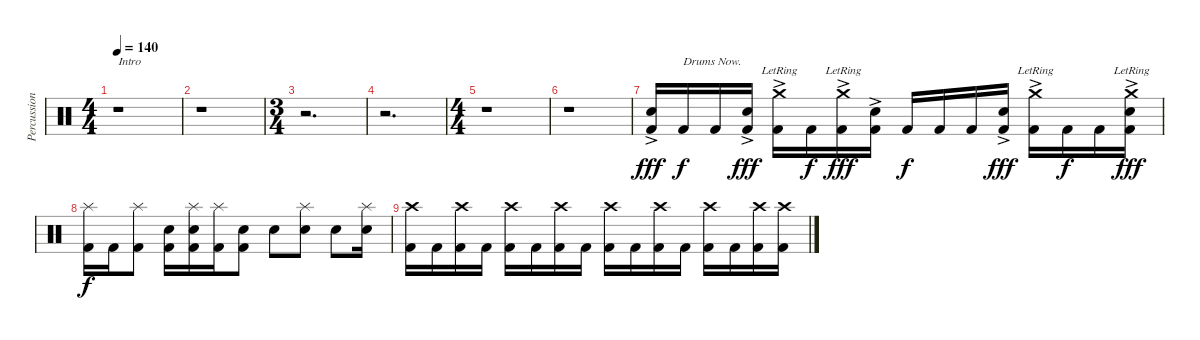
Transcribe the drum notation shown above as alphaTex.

\track ("Percussion" "Percussion") {instrument percussion}
\staff {score}
\articulation defaults
\ts (4 4)
\tempo 140
\clef neutral
\ks c
r.1{txt "Intro" dy fff} |
r.1 |
\ts (3 4)
r.2{d} |
r.2{d} |
\ts (4 4)
r.1 |
r.1 |
("Electric Snare (hit)"{ac} "Kick (hit) 2").16 "Kick (hit) 2".16{txt "Drums Now." dy f} "Kick (hit) 2".16 ("Electric Snare (hit)"{ac} "Kick (hit) 2").16{dy fff} ("Crash medium (hit)"{ac lr} "Kick (hit) 2").16 "Kick (hit) 2".16{dy f} ("Crash medium (hit)"{ac lr} "Kick (hit) 2").16{dy fff} ("Electric Snare (hit)"{ac} "Kick (hit) 2").16 "Kick (hit) 2".16{dy f} "Kick (hit) 2".16 "Kick (hit) 2".16 ("Electric Snare (hit)"{ac} "Kick (hit) 2").16{dy fff} ("Crash medium (hit)"{ac lr} "Kick (hit) 2").16 "Kick (hit) 2".16{dy f} "Kick (hit) 2".16 ("Crash medium (hit)"{ac lr} "Electric Snare (hit)"{ac} "Kick (hit) 2").16{dy fff} |
("Splash (hit)" "Kick (hit) 2").16{dy f} "Kick (hit) 2".16 ("Splash (hit)" "Kick (hit) 2").8 ("Electric Snare (hit)" "Kick (hit) 2").16 ("Splash (hit)" "Electric Snare (hit)" "Kick (hit) 2").16 ("Splash (hit)" "Kick (hit) 2").16 ("Electric Snare (hit)" "Kick (hit) 2").8 "Electric Snare (hit)".8 ("Splash (hit)" "Electric Snare (hit)").8 "Electric Snare (hit)".8 ("Splash (hit)" "Electric Snare (hit)").16 |
("Crash high (hit)" "Kick (hit) 2").16 "Kick (hit) 2".16 ("Crash high (hit)" "Kick (hit) 2").16 "Kick (hit) 2".16 ("Crash high (hit)" "Kick (hit) 2").16 "Kick (hit) 2".16 ("Crash high (hit)" "Kick (hit) 2").16 "Kick (hit) 2".16 ("Crash high (hit)" "Kick (hit) 2").16 "Kick (hit) 2".16 ("Crash high (hit)" "Kick (hit) 2").16 "Kick (hit) 2".16 ("Crash high (hit)" "Kick (hit) 2").16 "Kick (hit) 2".16 ("Crash high (hit)" "Kick (hit) 2").16 ("Crash high (hit)" "Kick (hit) 2").16
